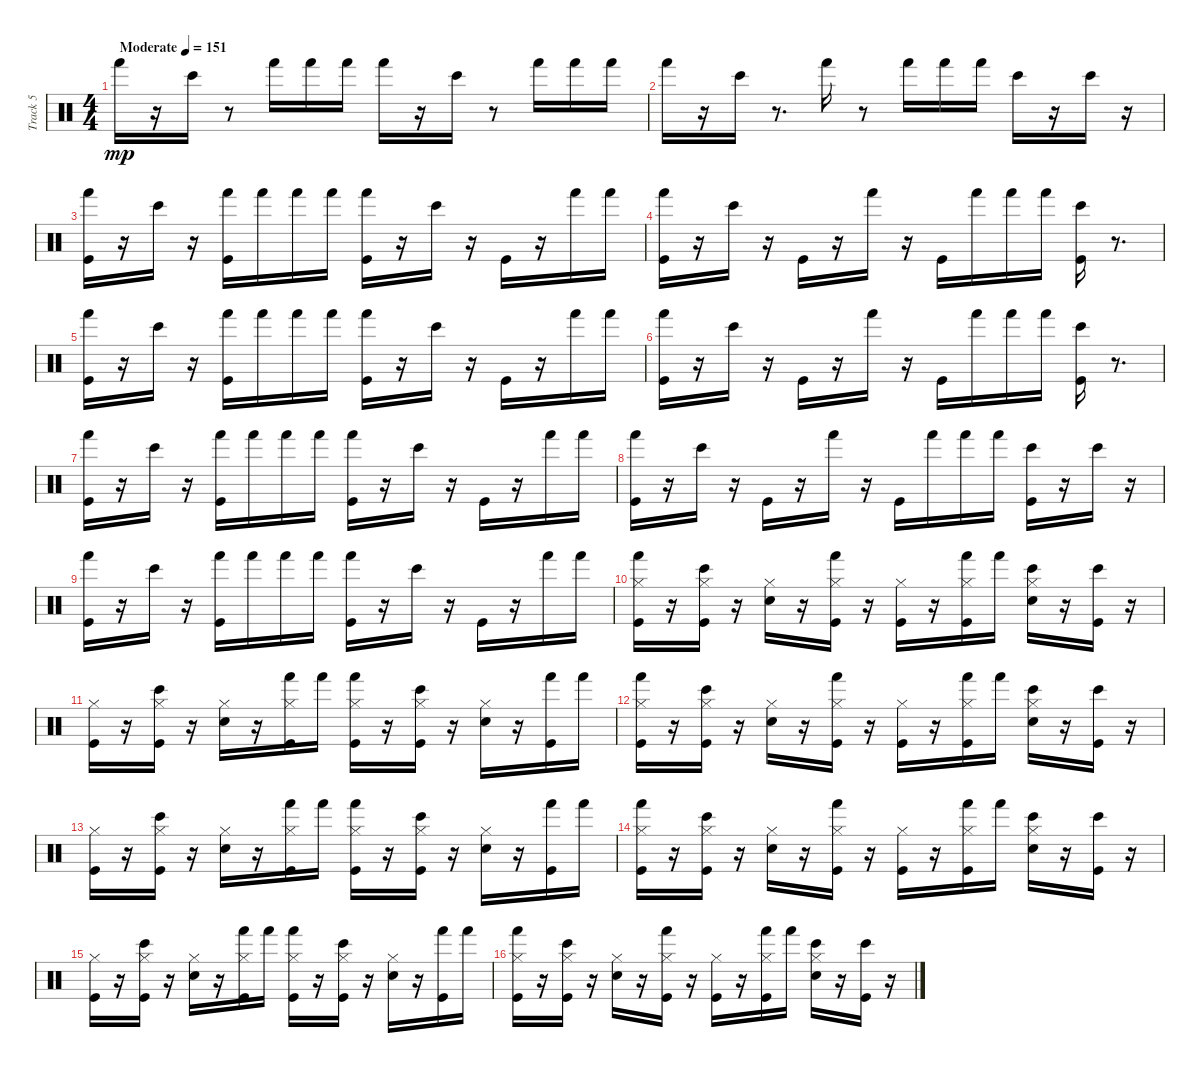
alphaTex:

\track ("Track 5" "Track 5") {instrument percussion}
\staff {score}
\articulation defaults
\ts (4 4)
\tempo (151 "Moderate")
\clef neutral
\ks c "Hand (hit)".16{dy mp}
r.16 "Bongo High (hit)".16 r.8 "Hand (hit)".16 "Hand (hit)".16 "Hand (hit)".16 "Hand (hit)".16 r.16 "Bongo High (hit)".16 r.8 "Hand (hit)".16 "Hand (hit)".16 "Hand (hit)".16 |
"Hand (hit)".16 r.16 "Bongo High (hit)".16 r.8{d} "Hand (hit)".16 r.8 "Hand (hit)".16 "Hand (hit)".16 "Hand (hit)".16 "Bongo High (hit)".16 r.16 "Bongo High (hit)".16 r.16 |
("Kick (hit)" "Hand (hit)").16 r.16 "Bongo High (hit)".16 r.16 ("Kick (hit)" "Hand (hit)").16 "Hand (hit)".16 "Hand (hit)".16 "Hand (hit)".16 ("Kick (hit)" "Hand (hit)").16 r.16 "Bongo High (hit)".16 r.16 "Kick (hit)".16 r.16 "Hand (hit)".16 "Hand (hit)".16 |
("Hand (hit)" "Kick (hit)").16 r.16 "Bongo High (hit)".16 r.16 "Kick (hit)".16 r.16 "Hand (hit)".16 r.16 "Kick (hit)".16 "Hand (hit)".16 "Hand (hit)".16 "Hand (hit)".16 ("Kick (hit)" "Bongo High (hit)").16 r.8{d} |
("Kick (hit)" "Hand (hit)").16 r.16 "Bongo High (hit)".16 r.16 ("Kick (hit)" "Hand (hit)").16 "Hand (hit)".16 "Hand (hit)".16 "Hand (hit)".16 ("Kick (hit)" "Hand (hit)").16 r.16 "Bongo High (hit)".16 r.16 "Kick (hit)".16 r.16 "Hand (hit)".16 "Hand (hit)".16 |
("Hand (hit)" "Kick (hit)").16 r.16 "Bongo High (hit)".16 r.16 "Kick (hit)".16 r.16 "Hand (hit)".16 r.16 "Kick (hit)".16 "Hand (hit)".16 "Hand (hit)".16 "Hand (hit)".16 ("Kick (hit)" "Bongo High (hit)").16 r.8{d} |
("Kick (hit)" "Hand (hit)").16 r.16 "Bongo High (hit)".16 r.16 ("Kick (hit)" "Hand (hit)").16 "Hand (hit)".16 "Hand (hit)".16 "Hand (hit)".16 ("Kick (hit)" "Hand (hit)").16 r.16 "Bongo High (hit)".16 r.16 "Kick (hit)".16 r.16 "Hand (hit)".16 "Hand (hit)".16 |
("Hand (hit)" "Kick (hit)").16 r.16 "Bongo High (hit)".16 r.16 "Kick (hit)".16 r.16 "Hand (hit)".16 r.16 "Kick (hit)".16 "Hand (hit)".16 "Hand (hit)".16 "Hand (hit)".16 ("Kick (hit)" "Bongo High (hit)").16 r.16 "Bongo High (hit)".16 r.16 |
("Kick (hit)" "Hand (hit)").16 r.16 "Bongo High (hit)".16 r.16 ("Kick (hit)" "Hand (hit)").16 "Hand (hit)".16 "Hand (hit)".16 "Hand (hit)".16 ("Kick (hit)" "Hand (hit)").16 r.16 "Bongo High (hit)".16 r.16 "Kick (hit)".16 r.16 "Hand (hit)".16 "Hand (hit)".16 |
("Hi-Hat (closed)" "Kick (hit)" "Hand (hit)").16 r.16 ("Hi-Hat (closed)" "Kick (hit)" "Bongo High (hit)").16 r.16 ("Hi-Hat (closed)" "Snare (hit) 2").16 r.16 ("Hi-Hat (closed)" "Kick (hit)" "Hand (hit)").16 r.16 ("Hi-Hat (closed)" "Kick (hit)").16 r.16 ("Hi-Hat (closed)" "Hand (hit)" "Kick (hit)").16 "Hand (hit)".16 ("Hi-Hat (closed)" "Bongo High (hit)" "Snare (hit) 2").16 r.16 ("Bongo High (hit)" "Kick (hit)").16 r.16 |
("Hi-Hat (closed)" "Kick (hit)").16 r.16 ("Hi-Hat (closed)" "Kick (hit)" "Bongo High (hit)").16 r.16 ("Hi-Hat (closed)" "Snare (hit) 2").16 r.16 ("Hi-Hat (closed)" "Kick (hit)" "Hand (hit)").16 "Hand (hit)".16 ("Hi-Hat (closed)" "Kick (hit)" "Hand (hit)").16 r.16 ("Hi-Hat (closed)" "Kick (hit)" "Bongo High (hit)").16 r.16 ("Hi-Hat (closed)" "Snare (hit) 2").16 r.16 ("Kick (hit)" "Hand (hit)").16 "Hand (hit)".16 |
("Hi-Hat (closed)" "Kick (hit)" "Hand (hit)").16 r.16 ("Hi-Hat (closed)" "Kick (hit)" "Bongo High (hit)").16 r.16 ("Hi-Hat (closed)" "Snare (hit) 2").16 r.16 ("Hi-Hat (closed)" "Kick (hit)" "Hand (hit)").16 r.16 ("Hi-Hat (closed)" "Kick (hit)").16 r.16 ("Hi-Hat (closed)" "Hand (hit)" "Kick (hit)").16 "Hand (hit)".16 ("Hi-Hat (closed)" "Bongo High (hit)" "Snare (hit) 2").16 r.16 ("Bongo High (hit)" "Kick (hit)").16 r.16 |
("Hi-Hat (closed)" "Kick (hit)").16 r.16 ("Hi-Hat (closed)" "Kick (hit)" "Bongo High (hit)").16 r.16 ("Hi-Hat (closed)" "Snare (hit) 2").16 r.16 ("Hi-Hat (closed)" "Kick (hit)" "Hand (hit)").16 "Hand (hit)".16 ("Hi-Hat (closed)" "Kick (hit)" "Hand (hit)").16 r.16 ("Hi-Hat (closed)" "Kick (hit)" "Bongo High (hit)").16 r.16 ("Hi-Hat (closed)" "Snare (hit) 2").16 r.16 ("Kick (hit)" "Hand (hit)").16 "Hand (hit)".16 |
("Hi-Hat (closed)" "Kick (hit)" "Hand (hit)").16 r.16 ("Hi-Hat (closed)" "Kick (hit)" "Bongo High (hit)").16 r.16 ("Hi-Hat (closed)" "Snare (hit) 2").16 r.16 ("Hi-Hat (closed)" "Kick (hit)" "Hand (hit)").16 r.16 ("Hi-Hat (closed)" "Kick (hit)").16 r.16 ("Hi-Hat (closed)" "Hand (hit)" "Kick (hit)").16 "Hand (hit)".16 ("Hi-Hat (closed)" "Bongo High (hit)" "Snare (hit) 2").16 r.16 ("Bongo High (hit)" "Kick (hit)").16 r.16 |
("Hi-Hat (closed)" "Kick (hit)").16 r.16 ("Hi-Hat (closed)" "Kick (hit)" "Bongo High (hit)").16 r.16 ("Hi-Hat (closed)" "Snare (hit) 2").16 r.16 ("Hi-Hat (closed)" "Kick (hit)" "Hand (hit)").16 "Hand (hit)".16 ("Hi-Hat (closed)" "Kick (hit)" "Hand (hit)").16 r.16 ("Hi-Hat (closed)" "Kick (hit)" "Bongo High (hit)").16 r.16 ("Hi-Hat (closed)" "Snare (hit) 2").16 r.16 ("Kick (hit)" "Hand (hit)").16 "Hand (hit)".16 |
("Hi-Hat (closed)" "Kick (hit)" "Hand (hit)").16 r.16 ("Hi-Hat (closed)" "Kick (hit)" "Bongo High (hit)").16 r.16 ("Hi-Hat (closed)" "Snare (hit) 2").16 r.16 ("Hi-Hat (closed)" "Kick (hit)" "Hand (hit)").16 r.16 ("Hi-Hat (closed)" "Kick (hit)").16 r.16 ("Hi-Hat (closed)" "Hand (hit)" "Kick (hit)").16 "Hand (hit)".16 ("Hi-Hat (closed)" "Bongo High (hit)" "Snare (hit) 2").16 r.16 ("Bongo High (hit)" "Kick (hit)").16 r.16
